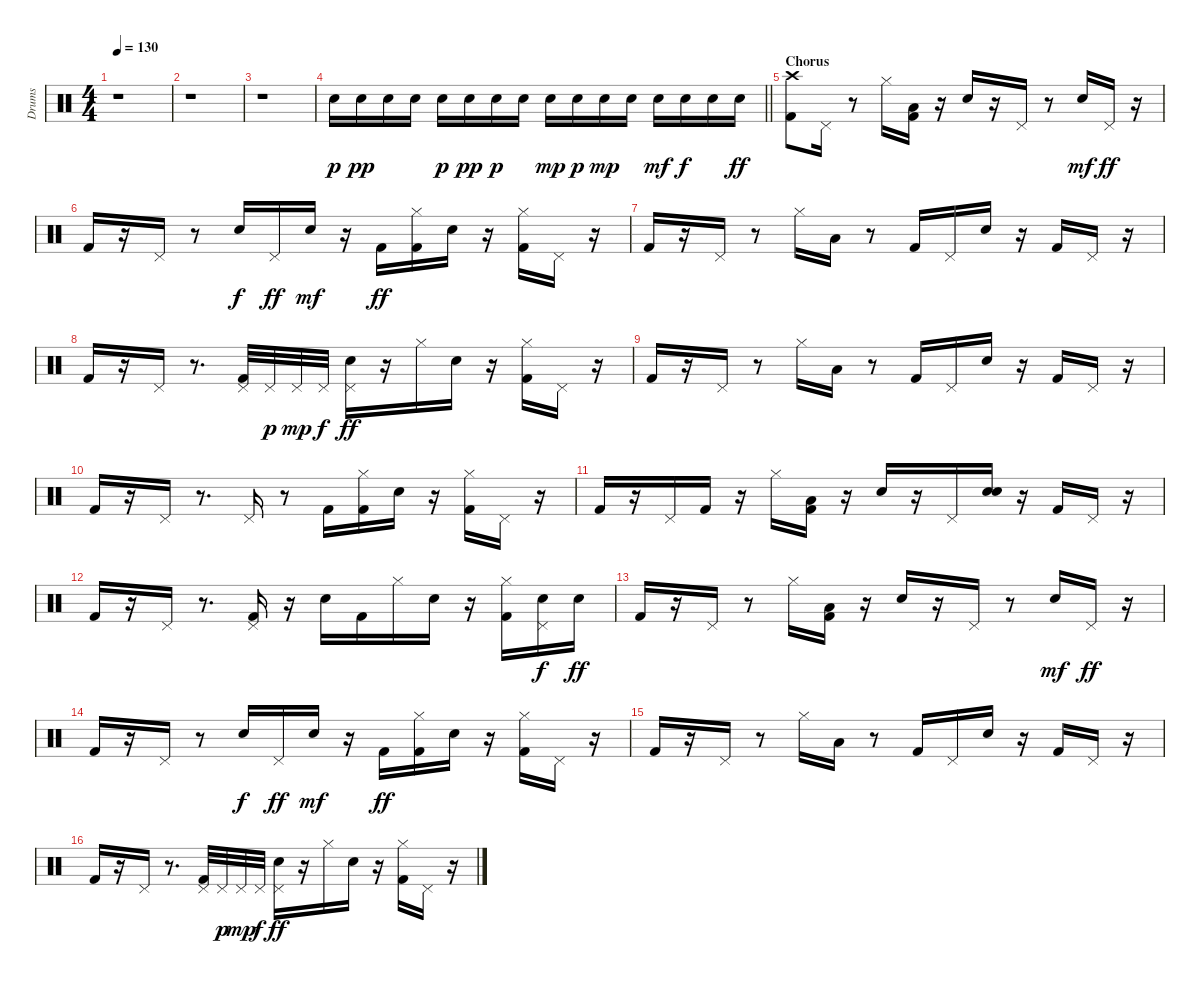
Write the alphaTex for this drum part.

\track ("Drums" "Drums") {instrument percussion}
\staff {score}
\articulation defaults
\ts (4 4)
\tempo 130
\clef neutral
\ks c
r.1{dy ff} |
r.1 |
r.1 |
\barLineRight lightlight "Snare (hit) 2".16{dy p} "Snare (hit) 2".16{dy pp} "Snare (hit) 2".16 "Snare (hit) 2".16 "Snare (hit) 2".16{dy p} "Snare (hit) 2".16{dy pp} "Snare (hit) 2".16{dy p} "Snare (hit) 2".16 "Snare (hit) 2".16{dy mp} "Snare (hit) 2".16{dy p} "Snare (hit) 2".16{dy mp} "Snare (hit) 2".16 "Snare (hit) 2".16{dy mf} "Snare (hit) 2".16{dy f} "Snare (hit) 2".16 "Snare (hit) 2".16{dy ff}
|
\section ("" "Chorus")
("Kick (hit) 2" "Crash high (hit)").8 "Pedal Hi-Hat (hit)".16 r.8 "Hi-Hat (closed)".16 ("Kick (hit) 2" "Low Floor Tom (hit)").16 r.16 "Electric Snare (hit)".16 r.16 "Pedal Hi-Hat (hit)".16 r.8 "Snare (hit) 2".16{dy mf} "Pedal Hi-Hat (hit)".16{dy ff} r.16 |
"Kick (hit) 2".16 r.16 "Pedal Hi-Hat (hit)".16 r.8 "Snare (hit) 2".16{dy f} "Pedal Hi-Hat (hit)".16{dy ff} "Snare (hit) 2".16{dy mf} r.16 "Kick (hit) 2".16{dy ff} ("Kick (hit) 2" "Hi-Hat (closed)").16 "Electric Snare (hit)".16 r.16 ("Kick (hit) 2" "Hi-Hat (closed)").16 "Pedal Hi-Hat (hit)".16 r.16 |
"Kick (hit) 2".16 r.16 "Pedal Hi-Hat (hit)".16 r.8 "Hi-Hat (closed)".16 "Low Floor Tom (hit)".16 r.8 "Kick (hit) 2".16 "Pedal Hi-Hat (hit)".16 "Electric Snare (hit)".16 r.16 "Kick (hit) 2".16 "Pedal Hi-Hat (hit)".16 r.16 |
"Kick (hit) 2".16 r.16 "Pedal Hi-Hat (hit)".16 r.8{d} ("Kick (hit) 2" "Pedal Hi-Hat (hit)").32 "Pedal Hi-Hat (hit)".32{dy p} "Pedal Hi-Hat (hit)".32{dy mp} "Pedal Hi-Hat (hit)".32{dy f} ("Electric Snare (hit)" "Pedal Hi-Hat (hit)").16{dy ff} r.16 "Hi-Hat (closed)".16 "Electric Snare (hit)".16 r.16 ("Kick (hit) 2" "Hi-Hat (closed)").16 "Pedal Hi-Hat (hit)".16 r.16 |
"Kick (hit) 2".16 r.16 "Pedal Hi-Hat (hit)".16 r.8 "Hi-Hat (closed)".16 "Low Floor Tom (hit)".16 r.8 "Kick (hit) 2".16 "Pedal Hi-Hat (hit)".16 "Electric Snare (hit)".16 r.16 "Kick (hit) 2".16 "Pedal Hi-Hat (hit)".16 r.16 |
"Kick (hit) 2".16 r.16 "Pedal Hi-Hat (hit)".16 r.8{d} "Pedal Hi-Hat (hit)".16 r.8 "Kick (hit) 2".16 ("Kick (hit) 2" "Hi-Hat (closed)").16 "Electric Snare (hit)".16 r.16 ("Kick (hit) 2" "Hi-Hat (closed)").16 "Pedal Hi-Hat (hit)".16 r.16 |
"Kick (hit) 2".16 r.16 "Pedal Hi-Hat (hit)".16 "Kick (hit) 2".16 r.16 "Hi-Hat (closed)".16 ("Kick (hit) 2" "Low Floor Tom (hit)").16 r.16 "Electric Snare (hit)".16 r.16 "Pedal Hi-Hat (hit)".16 ("Snare (hit) 2" "Hand Clap (hit)").16 r.16 "Kick (hit) 2".16 "Pedal Hi-Hat (hit)".16 r.16 |
"Kick (hit) 2".16 r.16 "Pedal Hi-Hat (hit)".16 r.8{d} ("Kick (hit) 2" "Pedal Hi-Hat (hit)").16 r.16 "Electric Snare (hit)".16 "Kick (hit) 2".16 "Hi-Hat (closed)".16 "Electric Snare (hit)".16 r.16 ("Kick (hit) 2" "Hi-Hat (closed)").16 ("Electric Snare (hit)" "Pedal Hi-Hat (hit)").16{dy f} "Electric Snare (hit)".16{dy ff} |
"Kick (hit) 2".16 r.16 "Pedal Hi-Hat (hit)".16 r.8 "Hi-Hat (closed)".16 ("Kick (hit) 2" "Low Floor Tom (hit)").16 r.16 "Electric Snare (hit)".16 r.16 "Pedal Hi-Hat (hit)".16 r.8 "Snare (hit) 2".16{dy mf} "Pedal Hi-Hat (hit)".16{dy ff} r.16 |
"Kick (hit) 2".16 r.16 "Pedal Hi-Hat (hit)".16 r.8 "Snare (hit) 2".16{dy f} "Pedal Hi-Hat (hit)".16{dy ff} "Snare (hit) 2".16{dy mf} r.16 "Kick (hit) 2".16{dy ff} ("Kick (hit) 2" "Hi-Hat (closed)").16 "Electric Snare (hit)".16 r.16 ("Kick (hit) 2" "Hi-Hat (closed)").16 "Pedal Hi-Hat (hit)".16 r.16 |
"Kick (hit) 2".16 r.16 "Pedal Hi-Hat (hit)".16 r.8 "Hi-Hat (closed)".16 "Low Floor Tom (hit)".16 r.8 "Kick (hit) 2".16 "Pedal Hi-Hat (hit)".16 "Electric Snare (hit)".16 r.16 "Kick (hit) 2".16 "Pedal Hi-Hat (hit)".16 r.16 |
"Kick (hit) 2".16 r.16 "Pedal Hi-Hat (hit)".16 r.8{d} ("Kick (hit) 2" "Pedal Hi-Hat (hit)").32 "Pedal Hi-Hat (hit)".32{dy p} "Pedal Hi-Hat (hit)".32{dy mp} "Pedal Hi-Hat (hit)".32{dy f} ("Electric Snare (hit)" "Pedal Hi-Hat (hit)").16{dy ff} r.16 "Hi-Hat (closed)".16 "Electric Snare (hit)".16 r.16 ("Kick (hit) 2" "Hi-Hat (closed)").16 "Pedal Hi-Hat (hit)".16 r.16
